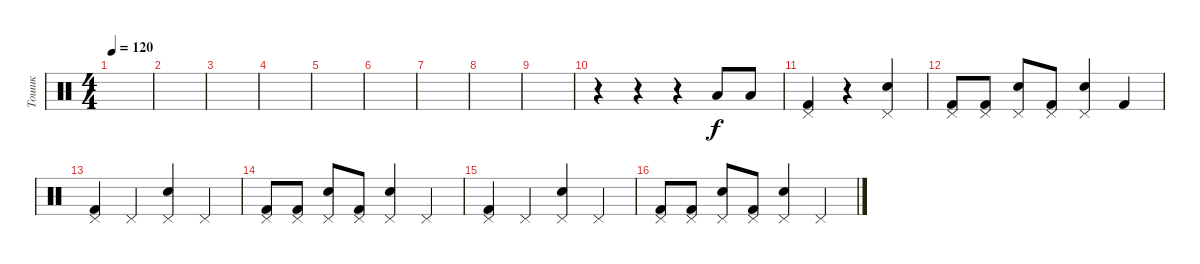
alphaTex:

\track ("Тошик" "Тошик") {instrument percussion}
\staff {score}
\articulation defaults
\ts (4 4)
\tempo 120
\clef neutral
\ks c
|
|
|
|
|
|
|
|
|
r.4 r.4 r.4 "Low Floor Tom (hit)".8 "Low Floor Tom (hit)".8 |
("Kick (hit) 2" "Pedal Hi-Hat (hit)").4 r.4 ("Electric Snare (hit)" "Pedal Hi-Hat (hit)").4 |
("Kick (hit) 2" "Pedal Hi-Hat (hit)").8 ("Kick (hit) 2" "Pedal Hi-Hat (hit)").8 ("Snare (hit) 2" "Pedal Hi-Hat (hit)").8 ("Kick (hit) 2" "Pedal Hi-Hat (hit)").8 ("Electric Snare (hit)" "Pedal Hi-Hat (hit)").4 "Kick (hit) 2".4 |
("Kick (hit) 2" "Pedal Hi-Hat (hit)").4 "Pedal Hi-Hat (hit)".4 ("Electric Snare (hit)" "Pedal Hi-Hat (hit)").4 "Pedal Hi-Hat (hit)".4 |
("Kick (hit) 2" "Pedal Hi-Hat (hit)").8 ("Kick (hit) 2" "Pedal Hi-Hat (hit)").8 ("Snare (hit) 2" "Pedal Hi-Hat (hit)").8 ("Kick (hit) 2" "Pedal Hi-Hat (hit)").8 ("Electric Snare (hit)" "Pedal Hi-Hat (hit)").4 "Pedal Hi-Hat (hit)".4 |
("Kick (hit) 2" "Pedal Hi-Hat (hit)").4 "Pedal Hi-Hat (hit)".4 ("Electric Snare (hit)" "Pedal Hi-Hat (hit)").4 "Pedal Hi-Hat (hit)".4 |
("Kick (hit) 2" "Pedal Hi-Hat (hit)").8 ("Kick (hit) 2" "Pedal Hi-Hat (hit)").8 ("Snare (hit) 2" "Pedal Hi-Hat (hit)").8 ("Kick (hit) 2" "Pedal Hi-Hat (hit)").8 ("Electric Snare (hit)" "Pedal Hi-Hat (hit)").4 "Pedal Hi-Hat (hit)".4
